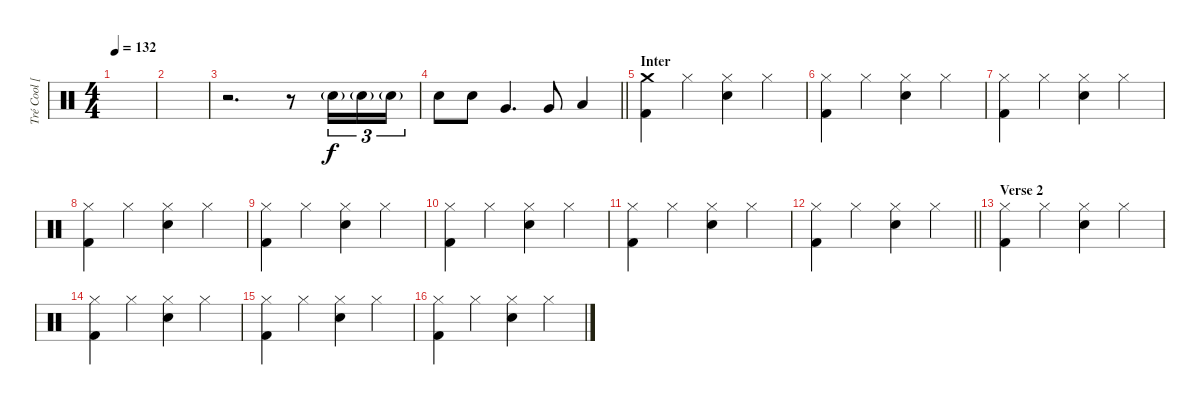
\track ("Tré Cool [Drums]" "Tré Cool [") {instrument percussion}
\staff {score}
\articulation defaults
\ts (4 4)
\tempo 132
\clef neutral
\ks c
|
|
r.2{d} r.8 "Snare (hit) 2"{g}.16{tu (3 2)} "Snare (hit) 2"{g}.16{tu (3 2)} "Snare (hit) 2"{g}.16{tu (3 2)} |
\barLineRight lightlight "Electric Snare (hit)".8{dy f} "Electric Snare (hit)".8 "Very Low Tom (hit)".4{d} "Very Low Tom (hit)".8 "Low Floor Tom (hit)".4
|
\section ("" "Inter")
("Crash medium (hit)" "Kick (hit) 2").4 "Hi-Hat (closed)".4 ("Hi-Hat (closed)" "Electric Snare (hit)").4 "Hi-Hat (closed)".4 |
("Hi-Hat (closed)" "Kick (hit) 2").4 "Hi-Hat (closed)".4 ("Hi-Hat (closed)" "Electric Snare (hit)").4 "Hi-Hat (closed)".4 |
("Hi-Hat (closed)" "Kick (hit) 2").4 "Hi-Hat (closed)".4 ("Hi-Hat (closed)" "Electric Snare (hit)").4 "Hi-Hat (closed)".4 |
("Hi-Hat (closed)" "Kick (hit) 2").4 "Hi-Hat (closed)".4 ("Hi-Hat (closed)" "Electric Snare (hit)").4 "Hi-Hat (closed)".4 |
("Hi-Hat (closed)" "Kick (hit) 2").4 "Hi-Hat (closed)".4 ("Hi-Hat (closed)" "Electric Snare (hit)").4 "Hi-Hat (closed)".4 |
("Hi-Hat (closed)" "Kick (hit) 2").4 "Hi-Hat (closed)".4 ("Hi-Hat (closed)" "Electric Snare (hit)").4 "Hi-Hat (closed)".4 |
("Hi-Hat (closed)" "Kick (hit) 2").4 "Hi-Hat (closed)".4 ("Hi-Hat (closed)" "Electric Snare (hit)").4 "Hi-Hat (closed)".4 |
\barLineRight lightlight
("Hi-Hat (closed)" "Kick (hit) 2").4 "Hi-Hat (closed)".4 ("Hi-Hat (closed)" "Electric Snare (hit)").4 "Hi-Hat (closed)".4 |
\section ("" "Verse 2")
("Hi-Hat (closed)" "Kick (hit) 2").4 "Hi-Hat (closed)".4 ("Hi-Hat (closed)" "Electric Snare (hit)").4 "Hi-Hat (closed)".4 |
("Hi-Hat (closed)" "Kick (hit) 2").4 "Hi-Hat (closed)".4 ("Hi-Hat (closed)" "Electric Snare (hit)").4 "Hi-Hat (closed)".4 |
("Hi-Hat (closed)" "Kick (hit) 2").4 "Hi-Hat (closed)".4 ("Hi-Hat (closed)" "Electric Snare (hit)").4 "Hi-Hat (closed)".4 |
("Hi-Hat (closed)" "Kick (hit) 2").4 "Hi-Hat (closed)".4 ("Hi-Hat (closed)" "Electric Snare (hit)").4 "Hi-Hat (closed)".4
